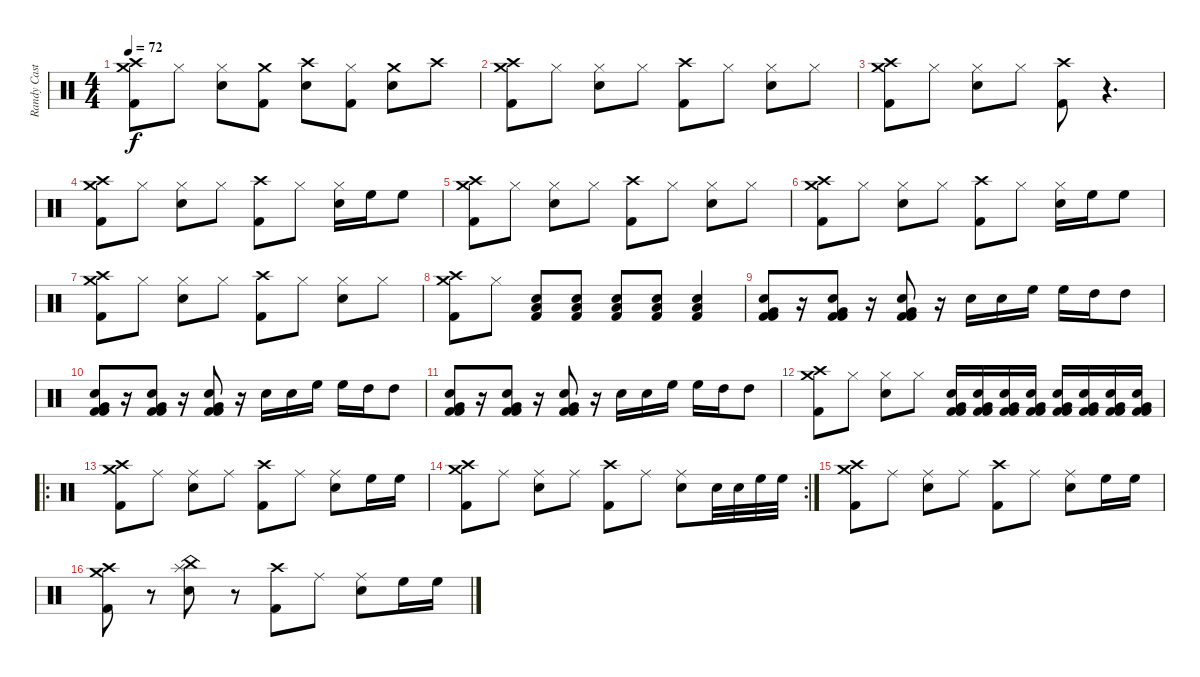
\track ("Randy Castillo" "Randy Cast") {instrument percussion}
\staff {score}
\articulation defaults
\ts (4 4)
\tempo 72
\clef neutral
\ks c
("Crash medium (hit)" "Crash high (hit)" "Kick (hit) 2").8{dy f} "Hi-Hat (closed)".8 ("Hi-Hat (closed)" "Snare (hit) 2").8 ("Crash medium (hit)" "Kick (hit) 2").8 ("Crash high (hit)" "Snare (hit) 2").8 ("Hi-Hat (closed)" "Kick (hit) 2").8 ("Crash medium (hit)" "Snare (hit) 2").8 "Crash high (hit)".8 |
("Crash medium (hit)" "Crash high (hit)" "Kick (hit) 2").8 "Hi-Hat (closed)".8 ("Hi-Hat (closed)" "Snare (hit) 2").8 "Hi-Hat (closed)".8 ("Crash high (hit)" "Kick (hit) 2").8 "Hi-Hat (closed)".8 ("Hi-Hat (closed)" "Snare (hit) 2").8 "Hi-Hat (closed)".8 |
("Crash medium (hit)" "Crash high (hit)" "Kick (hit) 2").8 "Hi-Hat (closed)".8 ("Hi-Hat (closed)" "Snare (hit) 2").8 "Hi-Hat (closed)".8 ("Crash high (hit)" "Kick (hit) 2").8 r.4{d} |
("Crash medium (hit)" "Crash high (hit)" "Kick (hit) 2").8 "Hi-Hat (closed)".8 ("Hi-Hat (closed)" "Snare (hit) 2").8 "Hi-Hat (closed)".8 ("Crash high (hit)" "Kick (hit) 2").8 "Hi-Hat (closed)".8 ("Hi-Hat (closed)" "Snare (hit) 2").16 "High Floor Tom (hit)".16 "High Floor Tom (hit)".8 |
("Crash medium (hit)" "Crash high (hit)" "Kick (hit) 2").8 "Hi-Hat (closed)".8 ("Hi-Hat (closed)" "Snare (hit) 2").8 "Hi-Hat (closed)".8 ("Crash high (hit)" "Kick (hit) 2").8 "Hi-Hat (closed)".8 ("Hi-Hat (closed)" "Snare (hit) 2").8 "Hi-Hat (closed)".8 |
("Crash medium (hit)" "Crash high (hit)" "Kick (hit) 2").8 "Hi-Hat (closed)".8 ("Hi-Hat (closed)" "Snare (hit) 2").8 "Hi-Hat (closed)".8 ("Crash high (hit)" "Kick (hit) 2").8 "Hi-Hat (closed)".8 ("Hi-Hat (closed)" "Snare (hit) 2").16 "High Floor Tom (hit)".16 "High Floor Tom (hit)".8 |
("Crash medium (hit)" "Crash high (hit)" "Kick (hit) 2").8 "Hi-Hat (closed)".8 ("Hi-Hat (closed)" "Snare (hit) 2").8 "Hi-Hat (closed)".8 ("Crash high (hit)" "Kick (hit) 2").8 "Hi-Hat (closed)".8 ("Hi-Hat (closed)" "Snare (hit) 2").8 "Hi-Hat (closed)".8 |
("Crash medium (hit)" "Crash high (hit)" "Kick (hit) 2").8 "Hi-Hat (closed)".8 ("Snare (hit) 2" "Low Floor Tom (hit)" "Kick (hit) 2").8 ("Snare (hit) 2" "Low Floor Tom (hit)" "Kick (hit) 2").8 ("Snare (hit) 2" "Low Floor Tom (hit)" "Kick (hit) 2").8 ("Snare (hit) 2" "Low Floor Tom (hit)" "Kick (hit) 2").8 ("Snare (hit) 2" "Low Floor Tom (hit)" "Kick (hit) 2").4 |
("Snare (hit) 2" "Very Low Tom (hit)" "Kick (hit) 2" "Kick (hit) 2").8 r.16 ("Snare (hit) 2" "Very Low Tom (hit)" "Kick (hit) 2" "Kick (hit) 2").8 r.16 ("Snare (hit) 2" "Very Low Tom (hit)" "Kick (hit) 2" "Kick (hit) 2").8 r.16 "Snare (hit) 2".16 "Snare (hit) 2".16 "High Floor Tom (hit)".16 "High Floor Tom (hit)".16 "High Tom (hit)".16 "High Tom (hit)".8 |
("Snare (hit) 2" "Very Low Tom (hit)" "Kick (hit) 2" "Kick (hit) 2").8 r.16 ("Snare (hit) 2" "Very Low Tom (hit)" "Kick (hit) 2" "Kick (hit) 2").8 r.16 ("Snare (hit) 2" "Very Low Tom (hit)" "Kick (hit) 2" "Kick (hit) 2").8 r.16 "Snare (hit) 2".16 "Snare (hit) 2".16 "High Floor Tom (hit)".16 "High Floor Tom (hit)".16 "High Tom (hit)".16 "High Tom (hit)".8 |
("Snare (hit) 2" "Very Low Tom (hit)" "Kick (hit) 2" "Kick (hit) 2").8 r.16 ("Snare (hit) 2" "Very Low Tom (hit)" "Kick (hit) 2" "Kick (hit) 2").8 r.16 ("Snare (hit) 2" "Very Low Tom (hit)" "Kick (hit) 2" "Kick (hit) 2").8 r.16 "Snare (hit) 2".16 "Snare (hit) 2".16 "High Floor Tom (hit)".16 "High Floor Tom (hit)".16 "High Tom (hit)".16 "High Tom (hit)".8 |
("Crash medium (hit)" "Crash high (hit)" "Kick (hit) 2").8 "Hi-Hat (closed)".8 ("Hi-Hat (closed)" "Snare (hit) 2").8 "Hi-Hat (closed)".8 ("Snare (hit) 2" "Very Low Tom (hit)" "Kick (hit) 2" "Kick (hit) 2").16 ("Snare (hit) 2" "Very Low Tom (hit)" "Kick (hit) 2" "Kick (hit) 2").16 ("Snare (hit) 2" "Very Low Tom (hit)" "Kick (hit) 2" "Kick (hit) 2").16 ("Snare (hit) 2" "Very Low Tom (hit)" "Kick (hit) 2" "Kick (hit) 2").16 ("Snare (hit) 2" "Very Low Tom (hit)" "Kick (hit) 2" "Kick (hit) 2").16 ("Snare (hit) 2" "Very Low Tom (hit)" "Kick (hit) 2" "Kick (hit) 2").16 ("Snare (hit) 2" "Very Low Tom (hit)" "Kick (hit) 2" "Kick (hit) 2").16 ("Snare (hit) 2" "Very Low Tom (hit)" "Kick (hit) 2" "Kick (hit) 2").16 |
\ro
("Crash medium (hit)" "Crash high (hit)" "Kick (hit) 2").8 "Ride (middle)".8 ("Ride (middle)" "Snare (hit) 2").8 "Ride (middle)".8 ("Crash high (hit)" "Kick (hit) 2").8 "Ride (middle)".8 ("Ride (middle)" "Snare (hit) 2").8 "High Floor Tom (hit)".16 "High Floor Tom (hit)".16 |
\rc 2
("Crash medium (hit)" "Crash high (hit)" "Kick (hit) 2").8 "Ride (middle)".8 ("Ride (middle)" "Snare (hit) 2").8 "Ride (middle)".8 ("Crash high (hit)" "Kick (hit) 2").8 "Ride (middle)".8 ("Ride (middle)" "Snare (hit) 2").8 "Snare (hit) 2".32 "Snare (hit) 2".32 "High Floor Tom (hit)".32 "High Floor Tom (hit)".32 |
("Crash medium (hit)" "Crash high (hit)" "Kick (hit) 2").8 "Ride (middle)".8 ("Ride (middle)" "Snare (hit) 2").8 "Ride (middle)".8 ("Crash high (hit)" "Kick (hit) 2").8 "Ride (middle)".8 ("Ride (middle)" "Snare (hit) 2").8 "High Floor Tom (hit)".16 "High Floor Tom (hit)".16 |
("Crash medium (hit)" "Crash high (hit)" "Kick (hit) 2").8 r.8 ("China (hit)" "Splash (hit)" "Snare (hit) 2").8 r.8 ("Crash high (hit)" "Kick (hit) 2").8 "Ride (middle)".8 ("Ride (middle)" "Snare (hit) 2").8 "High Floor Tom (hit)".16 "High Floor Tom (hit)".16
